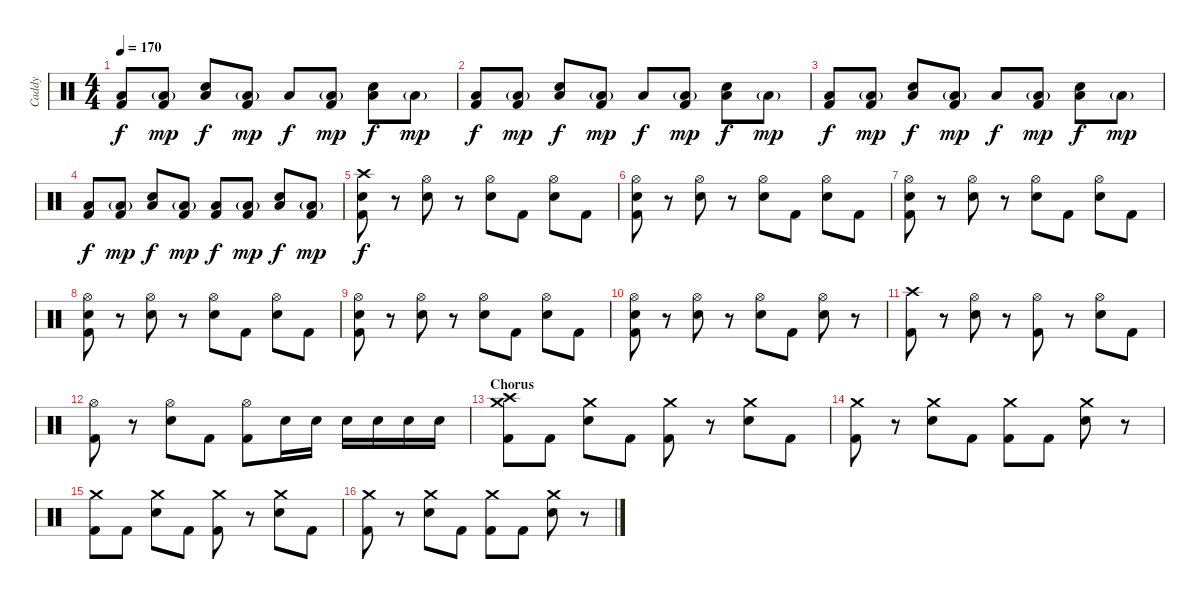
\track ("Caddy" "Caddy") {instrument percussion}
\staff {score}
\articulation defaults
\ts (4 4)
\tempo 170
\clef neutral
\ks c
("Low Floor Tom (hit)" "Kick (hit) 2").8{dy f} ("Low Floor Tom (hit)"{g} "Kick (hit) 2").8{dy mp} ("Electric Snare (hit)" "Low Floor Tom (hit)").8{dy f} ("Low Floor Tom (hit)"{g} "Kick (hit) 2").8{dy mp} "Low Floor Tom (hit)".8{dy f} ("Low Floor Tom (hit)"{g} "Kick (hit) 2").8{dy mp} ("Electric Snare (hit)" "Low Floor Tom (hit)").8{dy f} "Low Floor Tom (hit)"{g}.8{dy mp} |
("Low Floor Tom (hit)" "Kick (hit) 2").8{dy f} ("Low Floor Tom (hit)"{g} "Kick (hit) 2").8{dy mp} ("Electric Snare (hit)" "Low Floor Tom (hit)").8{dy f} ("Low Floor Tom (hit)"{g} "Kick (hit) 2").8{dy mp} "Low Floor Tom (hit)".8{dy f} ("Low Floor Tom (hit)"{g} "Kick (hit) 2").8{dy mp} ("Electric Snare (hit)" "Low Floor Tom (hit)").8{dy f} "Low Floor Tom (hit)"{g}.8{dy mp} |
("Low Floor Tom (hit)" "Kick (hit) 2").8{dy f} ("Low Floor Tom (hit)"{g} "Kick (hit) 2").8{dy mp} ("Electric Snare (hit)" "Low Floor Tom (hit)").8{dy f} ("Low Floor Tom (hit)"{g} "Kick (hit) 2").8{dy mp} "Low Floor Tom (hit)".8{dy f} ("Low Floor Tom (hit)"{g} "Kick (hit) 2").8{dy mp} ("Electric Snare (hit)" "Low Floor Tom (hit)").8{dy f} "Low Floor Tom (hit)"{g}.8{dy mp} |
("Low Floor Tom (hit)" "Kick (hit) 2").8{dy f} ("Low Floor Tom (hit)"{g} "Kick (hit) 2").8{dy mp} ("Electric Snare (hit)" "Low Floor Tom (hit)").8{dy f} ("Low Floor Tom (hit)"{g} "Kick (hit) 2").8{dy mp} ("Low Floor Tom (hit)" "Kick (hit) 2").8{dy f} ("Low Floor Tom (hit)"{g} "Kick (hit) 2").8{dy mp} ("Electric Snare (hit)" "Low Floor Tom (hit)").8{dy f} ("Low Floor Tom (hit)"{g} "Kick (hit) 2").8{dy mp} |
("Crash high (hit)" "Electric Snare (hit)" "Kick (hit) 2").8{dy f} r.8 ("Hi-Hat (open)" "Electric Snare (hit)").8 r.8 ("Hi-Hat (open)" "Electric Snare (hit)").8 "Kick (hit) 2".8 ("Hi-Hat (open)" "Electric Snare (hit)").8 "Kick (hit) 2".8 |
("Hi-Hat (open)" "Electric Snare (hit)" "Kick (hit) 2").8 r.8 ("Hi-Hat (open)" "Electric Snare (hit)").8 r.8 ("Hi-Hat (open)" "Electric Snare (hit)").8 "Kick (hit) 2".8 ("Hi-Hat (open)" "Electric Snare (hit)").8 "Kick (hit) 2".8 |
("Hi-Hat (open)" "Electric Snare (hit)" "Kick (hit) 2").8 r.8 ("Hi-Hat (open)" "Electric Snare (hit)").8 r.8 ("Hi-Hat (open)" "Electric Snare (hit)").8 "Kick (hit) 2".8 ("Hi-Hat (open)" "Electric Snare (hit)").8 "Kick (hit) 2".8 |
("Hi-Hat (open)" "Electric Snare (hit)" "Kick (hit) 2").8 r.8 ("Hi-Hat (open)" "Electric Snare (hit)").8 r.8 ("Hi-Hat (open)" "Electric Snare (hit)").8 "Kick (hit) 2".8 ("Hi-Hat (open)" "Electric Snare (hit)").8 "Kick (hit) 2".8 |
("Hi-Hat (open)" "Electric Snare (hit)" "Kick (hit) 2").8 r.8 ("Hi-Hat (open)" "Electric Snare (hit)").8 r.8 ("Hi-Hat (open)" "Electric Snare (hit)").8 "Kick (hit) 2".8 ("Hi-Hat (open)" "Electric Snare (hit)").8 "Kick (hit) 2".8 |
("Hi-Hat (open)" "Electric Snare (hit)" "Kick (hit) 2").8 r.8 ("Hi-Hat (open)" "Electric Snare (hit)").8 r.8 ("Hi-Hat (open)" "Electric Snare (hit)").8 "Kick (hit) 2".8 ("Hi-Hat (open)" "Electric Snare (hit)").8 r.8 |
("Crash high (hit)" "Kick (hit) 2").8 r.8 ("Hi-Hat (open)" "Electric Snare (hit)").8 r.8 ("Hi-Hat (open)" "Kick (hit) 2").8 r.8 ("Hi-Hat (open)" "Electric Snare (hit)").8 "Kick (hit) 2".8 |
("Hi-Hat (open)" "Kick (hit) 2").8 r.8 ("Hi-Hat (open)" "Electric Snare (hit)").8 "Kick (hit) 2".8 ("Hi-Hat (open)" "Kick (hit) 2").8 "Electric Snare (hit)".16 "Electric Snare (hit)".16 "Electric Snare (hit)".16 "Electric Snare (hit)".16 "Electric Snare (hit)".16 "Electric Snare (hit)".16 |
\section ("" "Chorus")
("Crash high (hit)" "Crash medium (hit)" "Kick (hit) 2").8 "Kick (hit) 2".8 ("Crash medium (hit)" "Electric Snare (hit)").8 "Kick (hit) 2".8 ("Crash medium (hit)" "Kick (hit) 2").8 r.8 ("Crash medium (hit)" "Electric Snare (hit)").8 "Kick (hit) 2".8 |
("Crash medium (hit)" "Kick (hit) 2").8 r.8 ("Crash medium (hit)" "Electric Snare (hit)").8 "Kick (hit) 2".8 ("Crash medium (hit)" "Kick (hit) 2").8 "Kick (hit) 2".8 ("Crash medium (hit)" "Electric Snare (hit)").8 r.8 |
("Crash medium (hit)" "Kick (hit) 2").8 "Kick (hit) 2".8 ("Crash medium (hit)" "Electric Snare (hit)").8 "Kick (hit) 2".8 ("Crash medium (hit)" "Kick (hit) 2").8 r.8 ("Crash medium (hit)" "Electric Snare (hit)").8 "Kick (hit) 2".8 |
("Crash medium (hit)" "Kick (hit) 2").8 r.8 ("Crash medium (hit)" "Electric Snare (hit)").8 "Kick (hit) 2".8 ("Crash medium (hit)" "Kick (hit) 2").8 "Kick (hit) 2".8 ("Crash medium (hit)" "Electric Snare (hit)").8 r.8
